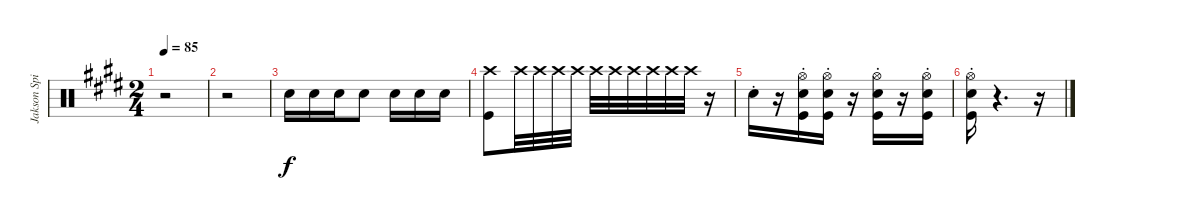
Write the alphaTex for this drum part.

\track ("Jakson Spires Drums" "Jakson Spi") {instrument percussion}
\staff {score}
\articulation defaults
\ts (2 4)
\tempo 85
\clef neutral
\ks e
r.2{dy f} |
r.2 |
"Snare (hit) 2".16 "Snare (hit) 2".16 "Snare (hit) 2".16 "Snare (hit) 2".8 "Snare (hit) 2".16 "Snare (hit) 2".16 "Snare (hit) 2".16 |
("Crash high (hit)" "Kick (hit)").8 "Crash high (hit)".32 "Crash high (hit)".32 "Crash high (hit)".32 "Crash high (hit)".32 "Crash high (hit)".32 "Crash high (hit)".32 "Crash high (hit)".32 "Crash high (hit)".32 "Crash high (hit)".32 "Crash high (hit)".32 r.16 |
"Snare (hit) 2"{st}.16 r.16 ("Hi-Hat (open)"{st} "Snare (hit) 2"{st} "Kick (hit)"{st}).16 ("Hi-Hat (open)"{st} "Snare (hit) 2"{st} "Kick (hit)"{st}).16 r.16 ("Hi-Hat (open)"{st} "Snare (hit) 2"{st} "Kick (hit)"{st}).16 r.16 ("Hi-Hat (open)"{st} "Snare (hit) 2"{st} "Kick (hit)"{st}).16 |
("Hi-Hat (open)"{st} "Snare (hit) 2"{st} "Kick (hit)"{st}).16 r.4{d} r.16
